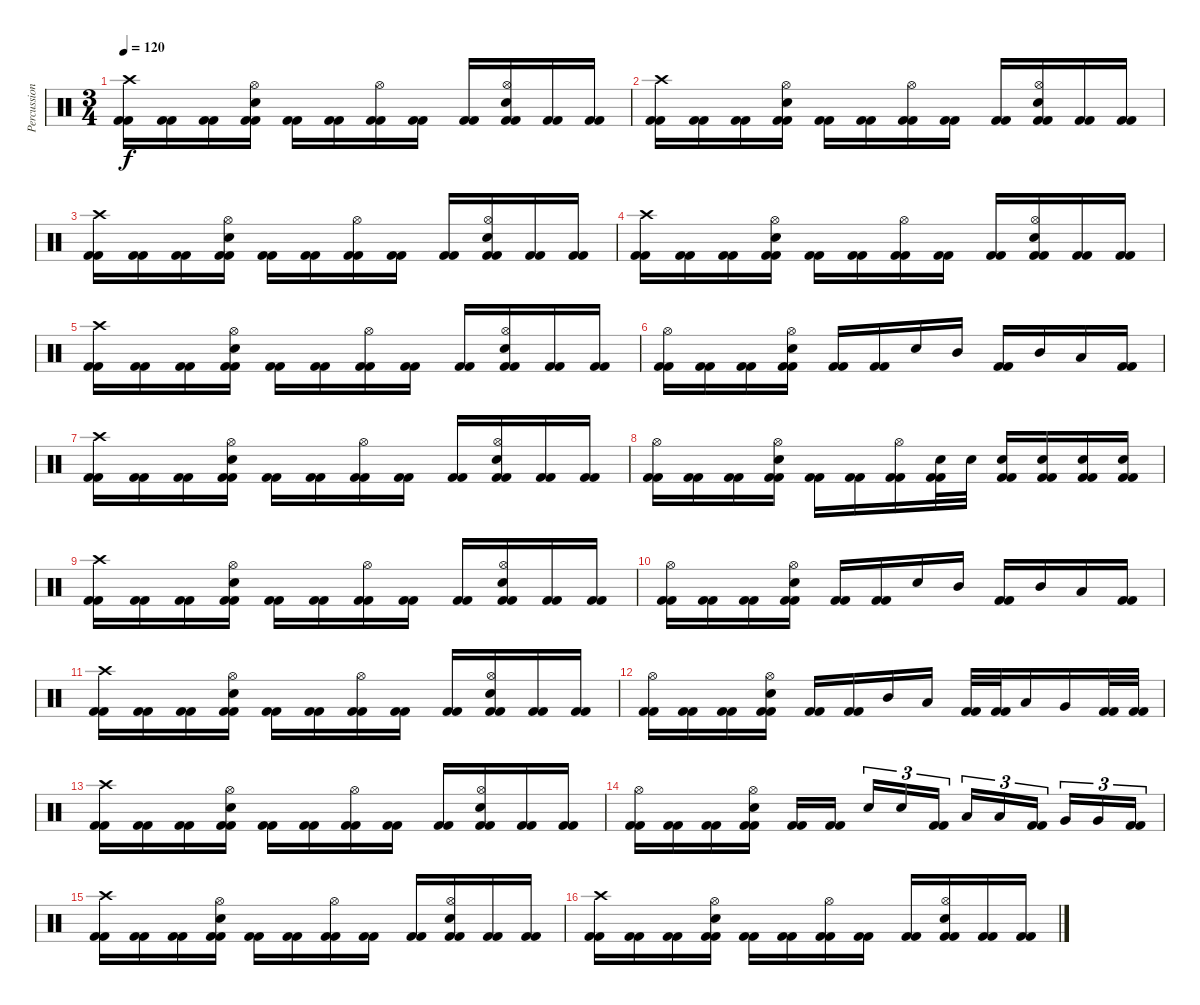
\track ("Percussion" "Percussion") {instrument percussion}
\staff {score}
\articulation defaults
\ts (3 4)
\tempo 120
\clef neutral
\ks c
("Crash high (hit)" "Kick (hit) 2" "Kick (hit) 2").16{dy f} ("Kick (hit) 2" "Kick (hit) 2").16 ("Kick (hit) 2" "Kick (hit) 2").16 ("Hi-Hat (open)" "Snare (hit) 2" "Kick (hit) 2" "Kick (hit) 2").16 ("Kick (hit) 2" "Kick (hit) 2").16 ("Kick (hit) 2" "Kick (hit) 2").16 ("Hi-Hat (open)" "Kick (hit) 2" "Kick (hit) 2").16 ("Kick (hit) 2" "Kick (hit) 2").16 ("Kick (hit) 2" "Kick (hit) 2").16 ("Hi-Hat (open)" "Snare (hit) 2" "Kick (hit) 2" "Kick (hit) 2").16 ("Kick (hit) 2" "Kick (hit) 2").16 ("Kick (hit) 2" "Kick (hit) 2").16 |
("Crash high (hit)" "Kick (hit) 2" "Kick (hit) 2").16 ("Kick (hit) 2" "Kick (hit) 2").16 ("Kick (hit) 2" "Kick (hit) 2").16 ("Hi-Hat (open)" "Snare (hit) 2" "Kick (hit) 2" "Kick (hit) 2").16 ("Kick (hit) 2" "Kick (hit) 2").16 ("Kick (hit) 2" "Kick (hit) 2").16 ("Hi-Hat (open)" "Kick (hit) 2" "Kick (hit) 2").16 ("Kick (hit) 2" "Kick (hit) 2").16 ("Kick (hit) 2" "Kick (hit) 2").16 ("Hi-Hat (open)" "Snare (hit) 2" "Kick (hit) 2" "Kick (hit) 2").16 ("Kick (hit) 2" "Kick (hit) 2").16 ("Kick (hit) 2" "Kick (hit) 2").16 |
("Crash high (hit)" "Kick (hit) 2" "Kick (hit) 2").16 ("Kick (hit) 2" "Kick (hit) 2").16 ("Kick (hit) 2" "Kick (hit) 2").16 ("Hi-Hat (open)" "Snare (hit) 2" "Kick (hit) 2" "Kick (hit) 2").16 ("Kick (hit) 2" "Kick (hit) 2").16 ("Kick (hit) 2" "Kick (hit) 2").16 ("Hi-Hat (open)" "Kick (hit) 2" "Kick (hit) 2").16 ("Kick (hit) 2" "Kick (hit) 2").16 ("Kick (hit) 2" "Kick (hit) 2").16 ("Hi-Hat (open)" "Snare (hit) 2" "Kick (hit) 2" "Kick (hit) 2").16 ("Kick (hit) 2" "Kick (hit) 2").16 ("Kick (hit) 2" "Kick (hit) 2").16 |
("Crash high (hit)" "Kick (hit) 2" "Kick (hit) 2").16 ("Kick (hit) 2" "Kick (hit) 2").16 ("Kick (hit) 2" "Kick (hit) 2").16 ("Hi-Hat (open)" "Snare (hit) 2" "Kick (hit) 2" "Kick (hit) 2").16 ("Kick (hit) 2" "Kick (hit) 2").16 ("Kick (hit) 2" "Kick (hit) 2").16 ("Hi-Hat (open)" "Kick (hit) 2" "Kick (hit) 2").16 ("Kick (hit) 2" "Kick (hit) 2").16 ("Kick (hit) 2" "Kick (hit) 2").16 ("Hi-Hat (open)" "Snare (hit) 2" "Kick (hit) 2" "Kick (hit) 2").16 ("Kick (hit) 2" "Kick (hit) 2").16 ("Kick (hit) 2" "Kick (hit) 2").16 |
("Crash high (hit)" "Kick (hit) 2" "Kick (hit) 2").16 ("Kick (hit) 2" "Kick (hit) 2").16 ("Kick (hit) 2" "Kick (hit) 2").16 ("Hi-Hat (open)" "Snare (hit) 2" "Kick (hit) 2" "Kick (hit) 2").16 ("Kick (hit) 2" "Kick (hit) 2").16 ("Kick (hit) 2" "Kick (hit) 2").16 ("Hi-Hat (open)" "Kick (hit) 2" "Kick (hit) 2").16 ("Kick (hit) 2" "Kick (hit) 2").16 ("Kick (hit) 2" "Kick (hit) 2").16 ("Hi-Hat (open)" "Snare (hit) 2" "Kick (hit) 2" "Kick (hit) 2").16 ("Kick (hit) 2" "Kick (hit) 2").16 ("Kick (hit) 2" "Kick (hit) 2").16 |
("Hi-Hat (open)" "Kick (hit) 2" "Kick (hit) 2").16 ("Kick (hit) 2" "Kick (hit) 2").16 ("Kick (hit) 2" "Kick (hit) 2").16 ("Hi-Hat (open)" "Snare (hit) 2" "Kick (hit) 2" "Kick (hit) 2").16 ("Kick (hit) 2" "Kick (hit) 2").16 ("Kick (hit) 2" "Kick (hit) 2").16 "Snare (hit) 2".16 "Mid Tom (hit)".16 ("Kick (hit) 2" "Kick (hit) 2").16 "Mid Tom (hit)".16 "Low Tom (hit)".16 ("Kick (hit) 2" "Kick (hit) 2").16 |
("Crash high (hit)" "Kick (hit) 2" "Kick (hit) 2").16 ("Kick (hit) 2" "Kick (hit) 2").16 ("Kick (hit) 2" "Kick (hit) 2").16 ("Hi-Hat (open)" "Snare (hit) 2" "Kick (hit) 2" "Kick (hit) 2").16 ("Kick (hit) 2" "Kick (hit) 2").16 ("Kick (hit) 2" "Kick (hit) 2").16 ("Hi-Hat (open)" "Kick (hit) 2" "Kick (hit) 2").16 ("Kick (hit) 2" "Kick (hit) 2").16 ("Kick (hit) 2" "Kick (hit) 2").16 ("Hi-Hat (open)" "Snare (hit) 2" "Kick (hit) 2" "Kick (hit) 2").16 ("Kick (hit) 2" "Kick (hit) 2").16 ("Kick (hit) 2" "Kick (hit) 2").16 |
("Hi-Hat (open)" "Kick (hit) 2" "Kick (hit) 2").16 ("Kick (hit) 2" "Kick (hit) 2").16 ("Kick (hit) 2" "Kick (hit) 2").16 ("Hi-Hat (open)" "Snare (hit) 2" "Kick (hit) 2" "Kick (hit) 2").16 ("Kick (hit) 2" "Kick (hit) 2").16 ("Kick (hit) 2" "Kick (hit) 2").16 ("Hi-Hat (open)" "Kick (hit) 2" "Kick (hit) 2").16 ("Snare (hit) 2" "Kick (hit) 2" "Kick (hit) 2").32 "Snare (hit) 2".32 ("Snare (hit) 2" "Kick (hit) 2" "Kick (hit) 2").16 ("Snare (hit) 2" "Kick (hit) 2" "Kick (hit) 2").16 ("Snare (hit) 2" "Kick (hit) 2" "Kick (hit) 2").16 ("Snare (hit) 2" "Kick (hit) 2" "Kick (hit) 2").16 |
("Crash high (hit)" "Kick (hit) 2" "Kick (hit) 2").16 ("Kick (hit) 2" "Kick (hit) 2").16 ("Kick (hit) 2" "Kick (hit) 2").16 ("Hi-Hat (open)" "Snare (hit) 2" "Kick (hit) 2" "Kick (hit) 2").16 ("Kick (hit) 2" "Kick (hit) 2").16 ("Kick (hit) 2" "Kick (hit) 2").16 ("Hi-Hat (open)" "Kick (hit) 2" "Kick (hit) 2").16 ("Kick (hit) 2" "Kick (hit) 2").16 ("Kick (hit) 2" "Kick (hit) 2").16 ("Hi-Hat (open)" "Snare (hit) 2" "Kick (hit) 2" "Kick (hit) 2").16 ("Kick (hit) 2" "Kick (hit) 2").16 ("Kick (hit) 2" "Kick (hit) 2").16 |
("Hi-Hat (open)" "Kick (hit) 2" "Kick (hit) 2").16 ("Kick (hit) 2" "Kick (hit) 2").16 ("Kick (hit) 2" "Kick (hit) 2").16 ("Hi-Hat (open)" "Snare (hit) 2" "Kick (hit) 2" "Kick (hit) 2").16 ("Kick (hit) 2" "Kick (hit) 2").16 ("Kick (hit) 2" "Kick (hit) 2").16 "Snare (hit) 2".16 "Mid Tom (hit)".16 ("Kick (hit) 2" "Kick (hit) 2").16 "Mid Tom (hit)".16 "Low Tom (hit)".16 ("Kick (hit) 2" "Kick (hit) 2").16 |
("Crash high (hit)" "Kick (hit) 2" "Kick (hit) 2").16 ("Kick (hit) 2" "Kick (hit) 2").16 ("Kick (hit) 2" "Kick (hit) 2").16 ("Hi-Hat (open)" "Snare (hit) 2" "Kick (hit) 2" "Kick (hit) 2").16 ("Kick (hit) 2" "Kick (hit) 2").16 ("Kick (hit) 2" "Kick (hit) 2").16 ("Hi-Hat (open)" "Kick (hit) 2" "Kick (hit) 2").16 ("Kick (hit) 2" "Kick (hit) 2").16 ("Kick (hit) 2" "Kick (hit) 2").16 ("Hi-Hat (open)" "Snare (hit) 2" "Kick (hit) 2" "Kick (hit) 2").16 ("Kick (hit) 2" "Kick (hit) 2").16 ("Kick (hit) 2" "Kick (hit) 2").16 |
("Hi-Hat (open)" "Kick (hit) 2" "Kick (hit) 2").16 ("Kick (hit) 2" "Kick (hit) 2").16 ("Kick (hit) 2" "Kick (hit) 2").16 ("Hi-Hat (open)" "Snare (hit) 2" "Kick (hit) 2" "Kick (hit) 2").16 ("Kick (hit) 2" "Kick (hit) 2").16 ("Kick (hit) 2" "Kick (hit) 2").16 "Mid Tom (hit)".16 "Low Tom (hit)".16 ("Kick (hit) 2" "Kick (hit) 2").32 ("Kick (hit) 2" "Kick (hit) 2").32 "Low Tom (hit)".16 "Very Low Tom (hit)".16 ("Kick (hit) 2" "Kick (hit) 2").32 ("Kick (hit) 2" "Kick (hit) 2").32 |
("Crash high (hit)" "Kick (hit) 2" "Kick (hit) 2").16 ("Kick (hit) 2" "Kick (hit) 2").16 ("Kick (hit) 2" "Kick (hit) 2").16 ("Hi-Hat (open)" "Snare (hit) 2" "Kick (hit) 2" "Kick (hit) 2").16 ("Kick (hit) 2" "Kick (hit) 2").16 ("Kick (hit) 2" "Kick (hit) 2").16 ("Hi-Hat (open)" "Kick (hit) 2" "Kick (hit) 2").16 ("Kick (hit) 2" "Kick (hit) 2").16 ("Kick (hit) 2" "Kick (hit) 2").16 ("Hi-Hat (open)" "Snare (hit) 2" "Kick (hit) 2" "Kick (hit) 2").16 ("Kick (hit) 2" "Kick (hit) 2").16 ("Kick (hit) 2" "Kick (hit) 2").16 |
("Hi-Hat (open)" "Kick (hit) 2" "Kick (hit) 2").16 ("Kick (hit) 2" "Kick (hit) 2").16 ("Kick (hit) 2" "Kick (hit) 2").16 ("Hi-Hat (open)" "Snare (hit) 2" "Kick (hit) 2" "Kick (hit) 2").16 ("Kick (hit) 2" "Kick (hit) 2").16 ("Kick (hit) 2" "Kick (hit) 2").16 "Snare (hit) 2".16{tu (3 2)} "Snare (hit) 2".16{tu (3 2)} ("Kick (hit) 2" "Kick (hit) 2").16{tu (3 2)} "Low Tom (hit)".16{tu (3 2)} "Low Tom (hit)".16{tu (3 2)} ("Kick (hit) 2" "Kick (hit) 2").16{tu (3 2)} "Very Low Tom (hit)".16{tu (3 2)} "Very Low Tom (hit)".16{tu (3 2)} ("Kick (hit) 2" "Kick (hit) 2").16{tu (3 2)} |
("Crash high (hit)" "Kick (hit) 2" "Kick (hit) 2").16 ("Kick (hit) 2" "Kick (hit) 2").16 ("Kick (hit) 2" "Kick (hit) 2").16 ("Hi-Hat (open)" "Snare (hit) 2" "Kick (hit) 2" "Kick (hit) 2").16 ("Kick (hit) 2" "Kick (hit) 2").16 ("Kick (hit) 2" "Kick (hit) 2").16 ("Hi-Hat (open)" "Kick (hit) 2" "Kick (hit) 2").16 ("Kick (hit) 2" "Kick (hit) 2").16 ("Kick (hit) 2" "Kick (hit) 2").16 ("Hi-Hat (open)" "Snare (hit) 2" "Kick (hit) 2" "Kick (hit) 2").16 ("Kick (hit) 2" "Kick (hit) 2").16 ("Kick (hit) 2" "Kick (hit) 2").16 |
("Crash high (hit)" "Kick (hit) 2" "Kick (hit) 2").16 ("Kick (hit) 2" "Kick (hit) 2").16 ("Kick (hit) 2" "Kick (hit) 2").16 ("Hi-Hat (open)" "Snare (hit) 2" "Kick (hit) 2" "Kick (hit) 2").16 ("Kick (hit) 2" "Kick (hit) 2").16 ("Kick (hit) 2" "Kick (hit) 2").16 ("Hi-Hat (open)" "Kick (hit) 2" "Kick (hit) 2").16 ("Kick (hit) 2" "Kick (hit) 2").16 ("Kick (hit) 2" "Kick (hit) 2").16 ("Hi-Hat (open)" "Snare (hit) 2" "Kick (hit) 2" "Kick (hit) 2").16 ("Kick (hit) 2" "Kick (hit) 2").16 ("Kick (hit) 2" "Kick (hit) 2").16
